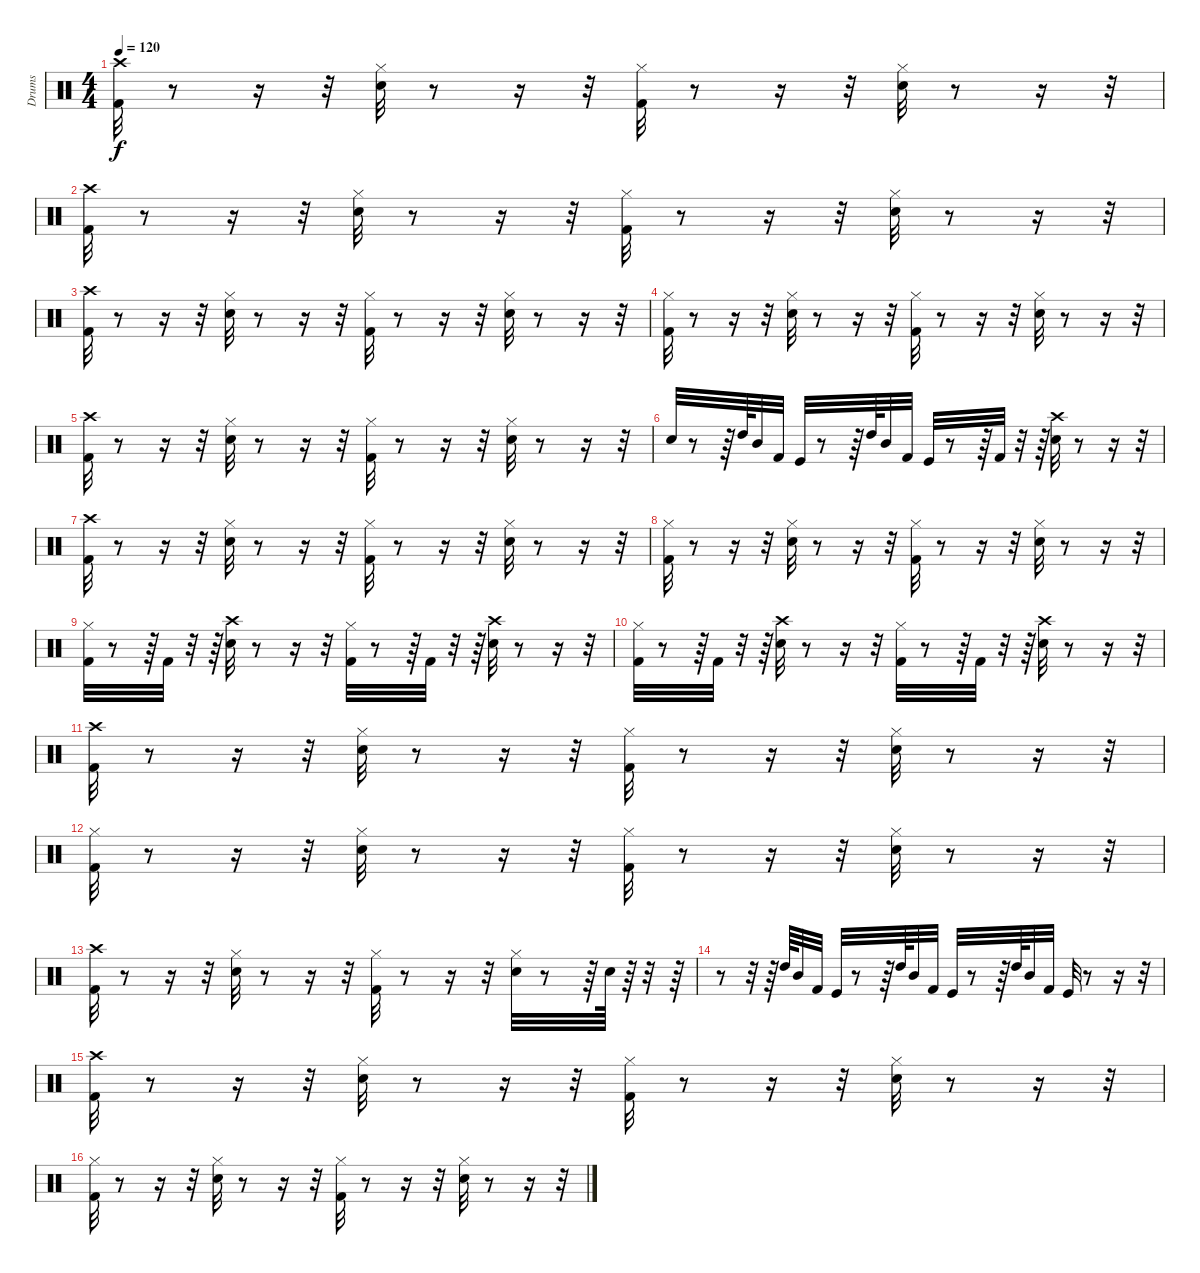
\track ("Drums" "Drums") {instrument percussion}
\staff {score}
\articulation defaults
\ts (4 4)
\tempo 120
\clef neutral
\ks c
("Crash high (hit)" "Kick (hit) 2").32{dy f} r.8 r.16 r.32 ("Hi-Hat (closed)" "Snare (hit) 2").32 r.8 r.16 r.32 ("Hi-Hat (closed)" "Kick (hit) 2").32 r.8 r.16 r.32 ("Hi-Hat (closed)" "Snare (hit) 2").32 r.8 r.16 r.32 |
("Kick (hit) 2" "Crash high (hit)").32 r.8 r.16 r.32 ("Snare (hit) 2" "Hi-Hat (closed)").32 r.8 r.16 r.32 ("Kick (hit) 2" "Hi-Hat (closed)").32 r.8 r.16 r.32 ("Snare (hit) 2" "Hi-Hat (closed)").32 r.8 r.16 r.32 |
("Kick (hit) 2" "Crash high (hit)").32 r.8 r.16 r.32 ("Snare (hit) 2" "Hi-Hat (closed)").32 r.8 r.16 r.32 ("Kick (hit) 2" "Hi-Hat (closed)").32 r.8 r.16 r.32 ("Snare (hit) 2" "Hi-Hat (closed)").32 r.8 r.16 r.32 |
("Kick (hit) 2" "Hi-Hat (closed)").32 r.8 r.16 r.32 ("Snare (hit) 2" "Hi-Hat (closed)").32 r.8 r.16 r.32 ("Kick (hit) 2" "Hi-Hat (closed)").32 r.8 r.16 r.32 ("Snare (hit) 2" "Hi-Hat (closed)").32 r.8 r.16 r.32 |
("Kick (hit) 2" "Crash high (hit)").32 r.8 r.16 r.32 ("Hi-Hat (closed)" "Snare (hit) 2").32 r.8 r.16 r.32 ("Hi-Hat (closed)" "Kick (hit) 2").32 r.8 r.16 r.32 ("Hi-Hat (closed)" "Snare (hit) 2").32 r.8 r.16 r.32 |
"Snare (hit) 2".32 r.8 r.64 "High Tom (hit)".64 "Mid Tom (hit)".32 "Kick (hit) 2".32 "Kick (hit)".32 r.8 r.64 "High Tom (hit)".64 "Mid Tom (hit)".32 "Kick (hit) 2".32 "Kick (hit)".32 r.8 r.64 "Kick (hit) 2".32 r.32 r.64 ("Crash high (hit)" "Snare (hit) 2").32 r.8 r.16 r.32 |
("Kick (hit) 2" "Crash high (hit)").32 r.8 r.16 r.32 ("Hi-Hat (closed)" "Snare (hit) 2").32 r.8 r.16 r.32 ("Hi-Hat (closed)" "Kick (hit) 2").32 r.8 r.16 r.32 ("Hi-Hat (closed)" "Snare (hit) 2").32 r.8 r.16 r.32 |
("Kick (hit) 2" "Hi-Hat (closed)").32 r.8 r.16 r.32 ("Snare (hit) 2" "Hi-Hat (closed)").32 r.8 r.16 r.32 ("Kick (hit) 2" "Hi-Hat (closed)").32 r.8 r.16 r.32 ("Snare (hit) 2" "Hi-Hat (closed)").32 r.8 r.16 r.32 |
("Hi-Hat (closed)" "Kick (hit) 2").32 r.8 r.64 "Kick (hit) 2".32 r.32 r.64 ("Crash high (hit)" "Snare (hit) 2").32 r.8 r.16 r.32 ("Hi-Hat (closed)" "Kick (hit) 2").32 r.8 r.64 "Kick (hit) 2".32 r.32 r.64 ("Crash high (hit)" "Snare (hit) 2").32 r.8 r.16 r.32 |
("Kick (hit) 2" "Hi-Hat (closed)").32 r.8 r.64 "Kick (hit) 2".32 r.32 r.64 ("Snare (hit) 2" "Crash high (hit)").32 r.8 r.16 r.32 ("Hi-Hat (closed)" "Kick (hit) 2").32 r.8 r.64 "Kick (hit) 2".32 r.32 r.64 ("Crash high (hit)" "Snare (hit) 2").32 r.8 r.16 r.32 |
("Kick (hit) 2" "Crash high (hit)").32 r.8 r.16 r.32 ("Hi-Hat (closed)" "Snare (hit) 2").32 r.8 r.16 r.32 ("Hi-Hat (closed)" "Kick (hit) 2").32 r.8 r.16 r.32 ("Hi-Hat (closed)" "Snare (hit) 2").32 r.8 r.16 r.32 |
("Kick (hit) 2" "Hi-Hat (closed)").32 r.8 r.16 r.32 ("Snare (hit) 2" "Hi-Hat (closed)").32 r.8 r.16 r.32 ("Kick (hit) 2" "Hi-Hat (closed)").32 r.8 r.16 r.32 ("Snare (hit) 2" "Hi-Hat (closed)").32 r.8 r.16 r.32 |
("Crash high (hit)" "Kick (hit) 2").32 r.8 r.16 r.32 ("Hi-Hat (closed)" "Snare (hit) 2").32 r.8 r.16 r.32 ("Kick (hit) 2" "Hi-Hat (closed)").32 r.8 r.16 r.32 ("Hi-Hat (closed)" "Snare (hit) 2").32 r.8 r.64 "Snare (hit) 2".64 r.64 r.32 r.64 |
r.8 r.32 r.64 "High Tom (hit)".64 "Mid Tom (hit)".32 "Kick (hit) 2".32 "Kick (hit)".32 r.8 r.64 "High Tom (hit)".64 "Mid Tom (hit)".32 "Kick (hit) 2".32 "Kick (hit)".32 r.8 r.64 "High Tom (hit)".64 "Mid Tom (hit)".32 "Kick (hit) 2".32 "Kick (hit)".32 r.8 r.16 r.32 |
("Kick (hit) 2" "Crash high (hit)").32 r.8 r.16 r.32 ("Snare (hit) 2" "Hi-Hat (closed)").32 r.8 r.16 r.32 ("Kick (hit) 2" "Hi-Hat (closed)").32 r.8 r.16 r.32 ("Snare (hit) 2" "Hi-Hat (closed)").32 r.8 r.16 r.32 |
("Kick (hit) 2" "Hi-Hat (closed)").32 r.8 r.16 r.32 ("Snare (hit) 2" "Hi-Hat (closed)").32 r.8 r.16 r.32 ("Kick (hit) 2" "Hi-Hat (closed)").32 r.8 r.16 r.32 ("Snare (hit) 2" "Hi-Hat (closed)").32 r.8 r.16 r.32
